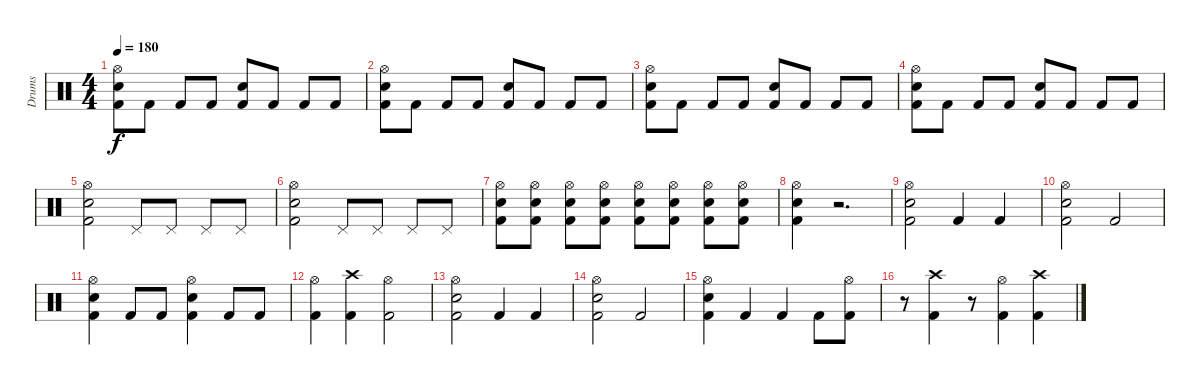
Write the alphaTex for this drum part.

\track ("Drums" "Drums") {instrument percussion}
\staff {score}
\articulation defaults
\ts (4 4)
\tempo 180
\clef neutral
\ks c
("Kick (hit) 2" "Snare (hit) 2" "Hi-Hat (open)").8{dy f} "Kick (hit) 2".8 "Kick (hit) 2".8 "Kick (hit) 2".8 ("Kick (hit) 2" "Snare (hit) 2").8 "Kick (hit) 2".8 "Kick (hit) 2".8 "Kick (hit) 2".8 |
("Kick (hit) 2" "Snare (hit) 2" "Hi-Hat (open)").8 "Kick (hit) 2".8 "Kick (hit) 2".8 "Kick (hit) 2".8 ("Kick (hit) 2" "Snare (hit) 2").8 "Kick (hit) 2".8 "Kick (hit) 2".8 "Kick (hit) 2".8 |
("Kick (hit) 2" "Snare (hit) 2" "Hi-Hat (open)").8 "Kick (hit) 2".8 "Kick (hit) 2".8 "Kick (hit) 2".8 ("Kick (hit) 2" "Snare (hit) 2").8 "Kick (hit) 2".8 "Kick (hit) 2".8 "Kick (hit) 2".8 |
("Kick (hit) 2" "Snare (hit) 2" "Hi-Hat (open)").8 "Kick (hit) 2".8 "Kick (hit) 2".8 "Kick (hit) 2".8 ("Kick (hit) 2" "Snare (hit) 2").8 "Kick (hit) 2".8 "Kick (hit) 2".8 "Kick (hit) 2".8 |
("Kick (hit) 2" "Snare (hit) 2" "Hi-Hat (open)").2 "Pedal Hi-Hat (hit)".8 "Pedal Hi-Hat (hit)".8 "Pedal Hi-Hat (hit)".8 "Pedal Hi-Hat (hit)".8 |
("Kick (hit) 2" "Snare (hit) 2" "Hi-Hat (open)").2 "Pedal Hi-Hat (hit)".8 "Pedal Hi-Hat (hit)".8 "Pedal Hi-Hat (hit)".8 "Pedal Hi-Hat (hit)".8 |
("Kick (hit) 2" "Snare (hit) 2" "Hi-Hat (open)").8 ("Kick (hit) 2" "Snare (hit) 2" "Hi-Hat (open)").8 ("Kick (hit) 2" "Snare (hit) 2" "Hi-Hat (open)").8 ("Kick (hit) 2" "Snare (hit) 2" "Hi-Hat (open)").8 ("Kick (hit) 2" "Snare (hit) 2" "Hi-Hat (open)").8 ("Kick (hit) 2" "Snare (hit) 2" "Hi-Hat (open)").8 ("Kick (hit) 2" "Snare (hit) 2" "Hi-Hat (open)").8 ("Kick (hit) 2" "Snare (hit) 2" "Hi-Hat (open)").8 |
("Kick (hit) 2" "Snare (hit) 2" "Hi-Hat (open)").4 r.2{d} |
("Kick (hit) 2" "Snare (hit) 2" "Hi-Hat (open)").2 "Kick (hit) 2".4 "Kick (hit) 2".4 |
("Kick (hit) 2" "Snare (hit) 2" "Hi-Hat (open)").2 "Kick (hit) 2".2 |
("Kick (hit) 2" "Snare (hit) 2" "Hi-Hat (open)").4 "Kick (hit) 2".8 "Kick (hit) 2".8 ("Kick (hit) 2" "Snare (hit) 2" "Hi-Hat (open)").4 "Kick (hit) 2".8 "Kick (hit) 2".8 |
("Kick (hit) 2" "Hi-Hat (open)").4 ("Kick (hit) 2" "Crash high (hit)").4 ("Kick (hit) 2" "Hi-Hat (open)").2 |
("Kick (hit) 2" "Snare (hit) 2" "Hi-Hat (open)").2 "Kick (hit) 2".4 "Kick (hit) 2".4 |
("Kick (hit) 2" "Snare (hit) 2" "Hi-Hat (open)").2 "Kick (hit) 2".2 |
("Kick (hit) 2" "Snare (hit) 2" "Hi-Hat (open)").4 "Kick (hit) 2".4 "Kick (hit) 2".4 "Kick (hit) 2".8 ("Kick (hit) 2" "Hi-Hat (open)").8 |
r.8 ("Kick (hit) 2" "Crash high (hit)").4 r.8 ("Kick (hit) 2" "Hi-Hat (open)").4 ("Kick (hit) 2" "Crash high (hit)").4
